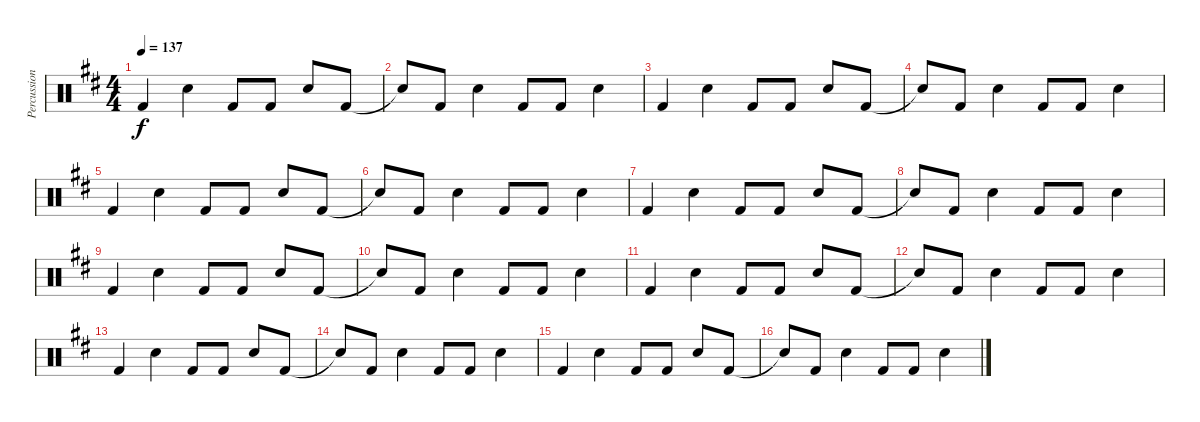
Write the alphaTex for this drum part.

\track ("Percussion" "Percussion") {instrument percussion}
\staff {score}
\articulation defaults
\ts (4 4)
\tempo 137
\clef neutral
\ks d "Kick (hit) 2".4{dy f} "Electric Snare (hit)".4 "Kick (hit) 2".8 "Kick (hit) 2".8 "Electric Snare (hit)".8 "Kick (hit) 2".8
|
"Snare (hit)"{t}.8 "Kick (hit) 2".8 "Electric Snare (hit)".4 "Kick (hit) 2".8 "Kick (hit) 2".8 "Electric Snare (hit)".4 |
"Kick (hit) 2".4 "Electric Snare (hit)".4 "Kick (hit) 2".8 "Kick (hit) 2".8 "Electric Snare (hit)".8 "Kick (hit) 2".8 |
"Snare (hit)"{t}.8 "Kick (hit) 2".8 "Electric Snare (hit)".4 "Kick (hit) 2".8 "Kick (hit) 2".8 "Electric Snare (hit)".4 |
"Kick (hit) 2".4 "Electric Snare (hit)".4 "Kick (hit) 2".8 "Kick (hit) 2".8 "Electric Snare (hit)".8 "Kick (hit) 2".8 |
"Snare (hit)"{t}.8 "Kick (hit) 2".8 "Electric Snare (hit)".4 "Kick (hit) 2".8 "Kick (hit) 2".8 "Electric Snare (hit)".4 |
"Kick (hit) 2".4 "Electric Snare (hit)".4 "Kick (hit) 2".8 "Kick (hit) 2".8 "Electric Snare (hit)".8 "Kick (hit) 2".8 |
"Snare (hit)"{t}.8 "Kick (hit) 2".8 "Electric Snare (hit)".4 "Kick (hit) 2".8 "Kick (hit) 2".8 "Electric Snare (hit)".4 |
"Kick (hit) 2".4 "Electric Snare (hit)".4 "Kick (hit) 2".8 "Kick (hit) 2".8 "Electric Snare (hit)".8 "Kick (hit) 2".8 |
"Snare (hit)"{t}.8 "Kick (hit) 2".8 "Electric Snare (hit)".4 "Kick (hit) 2".8 "Kick (hit) 2".8 "Electric Snare (hit)".4 |
"Kick (hit) 2".4 "Electric Snare (hit)".4 "Kick (hit) 2".8 "Kick (hit) 2".8 "Electric Snare (hit)".8 "Kick (hit) 2".8 |
"Snare (hit)"{t}.8 "Kick (hit) 2".8 "Electric Snare (hit)".4 "Kick (hit) 2".8 "Kick (hit) 2".8 "Electric Snare (hit)".4 |
"Kick (hit) 2".4 "Electric Snare (hit)".4 "Kick (hit) 2".8 "Kick (hit) 2".8 "Electric Snare (hit)".8 "Kick (hit) 2".8 |
"Snare (hit)"{t}.8 "Kick (hit) 2".8 "Electric Snare (hit)".4 "Kick (hit) 2".8 "Kick (hit) 2".8 "Electric Snare (hit)".4 |
"Kick (hit) 2".4 "Electric Snare (hit)".4 "Kick (hit) 2".8 "Kick (hit) 2".8 "Electric Snare (hit)".8 "Kick (hit) 2".8 |
"Snare (hit)"{t}.8 "Kick (hit) 2".8 "Electric Snare (hit)".4 "Kick (hit) 2".8 "Kick (hit) 2".8 "Electric Snare (hit)".4
